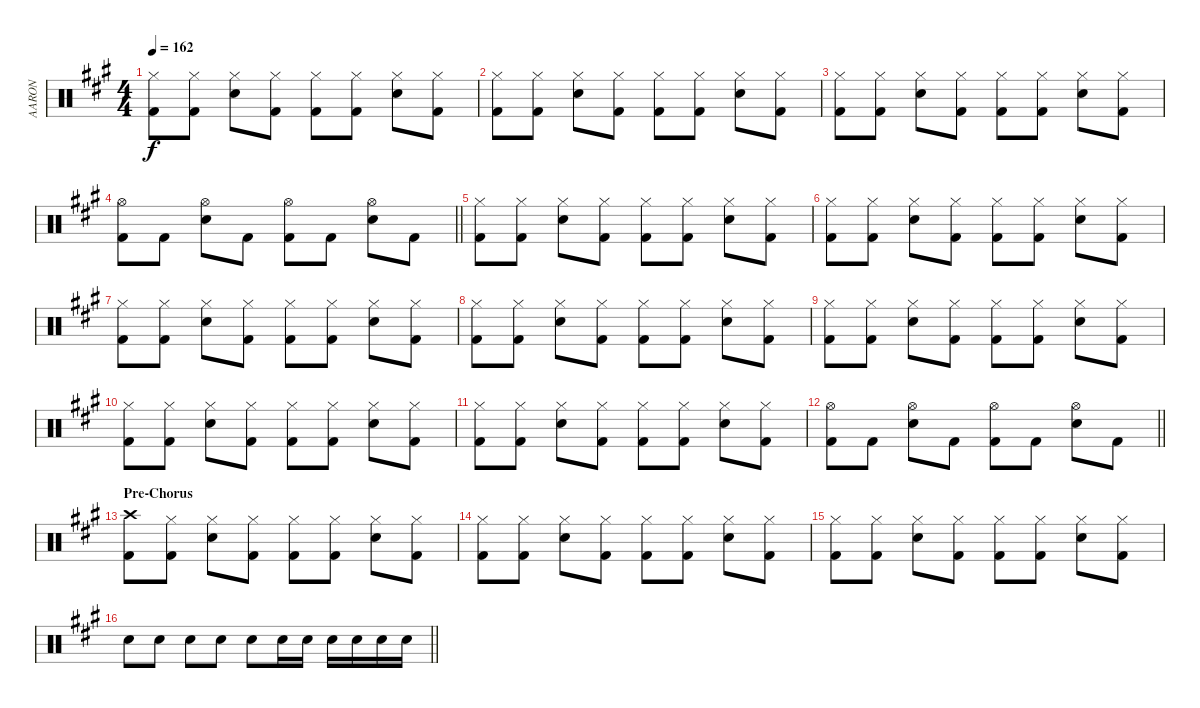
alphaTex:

\track ("AARON" "AARON") {instrument percussion}
\staff {score}
\articulation defaults
\ts (4 4)
\tempo 162
\clef neutral
\ks a
("Hi-Hat (closed)" "Kick (hit) 2").8{dy f} ("Hi-Hat (closed)" "Kick (hit) 2").8 ("Hi-Hat (closed)" "Electric Snare (hit)").8 ("Hi-Hat (closed)" "Kick (hit) 2").8 ("Hi-Hat (closed)" "Kick (hit) 2").8 ("Hi-Hat (closed)" "Kick (hit) 2").8 ("Hi-Hat (closed)" "Electric Snare (hit)").8 ("Hi-Hat (closed)" "Kick (hit) 2").8 |
("Hi-Hat (closed)" "Kick (hit) 2").8 ("Hi-Hat (closed)" "Kick (hit) 2").8 ("Hi-Hat (closed)" "Electric Snare (hit)").8 ("Hi-Hat (closed)" "Kick (hit) 2").8 ("Hi-Hat (closed)" "Kick (hit) 2").8 ("Hi-Hat (closed)" "Kick (hit) 2").8 ("Hi-Hat (closed)" "Electric Snare (hit)").8 ("Hi-Hat (closed)" "Kick (hit) 2").8 |
("Hi-Hat (closed)" "Kick (hit) 2").8 ("Hi-Hat (closed)" "Kick (hit) 2").8 ("Hi-Hat (closed)" "Electric Snare (hit)").8 ("Hi-Hat (closed)" "Kick (hit) 2").8 ("Hi-Hat (closed)" "Kick (hit) 2").8 ("Hi-Hat (closed)" "Kick (hit) 2").8 ("Hi-Hat (closed)" "Electric Snare (hit)").8 ("Hi-Hat (closed)" "Kick (hit) 2").8 |
\barLineRight lightlight
("Hi-Hat (open)" "Kick (hit) 2").8 "Kick (hit) 2".8 ("Hi-Hat (open)" "Electric Snare (hit)").8 "Kick (hit) 2".8 ("Hi-Hat (open)" "Kick (hit) 2").8 "Kick (hit) 2".8 ("Hi-Hat (open)" "Electric Snare (hit)").8 "Kick (hit) 2".8 |
("Hi-Hat (closed)" "Kick (hit) 2").8 ("Hi-Hat (closed)" "Kick (hit) 2").8 ("Hi-Hat (closed)" "Electric Snare (hit)").8 ("Hi-Hat (closed)" "Kick (hit) 2").8 ("Hi-Hat (closed)" "Kick (hit) 2").8 ("Hi-Hat (closed)" "Kick (hit) 2").8 ("Hi-Hat (closed)" "Electric Snare (hit)").8 ("Hi-Hat (closed)" "Kick (hit) 2").8 |
("Hi-Hat (closed)" "Kick (hit) 2").8 ("Hi-Hat (closed)" "Kick (hit) 2").8 ("Hi-Hat (closed)" "Electric Snare (hit)").8 ("Hi-Hat (closed)" "Kick (hit) 2").8 ("Hi-Hat (closed)" "Kick (hit) 2").8 ("Hi-Hat (closed)" "Kick (hit) 2").8 ("Hi-Hat (closed)" "Electric Snare (hit)").8 ("Hi-Hat (closed)" "Kick (hit) 2").8 |
("Hi-Hat (closed)" "Kick (hit) 2").8 ("Hi-Hat (closed)" "Kick (hit) 2").8 ("Hi-Hat (closed)" "Electric Snare (hit)").8 ("Hi-Hat (closed)" "Kick (hit) 2").8 ("Hi-Hat (closed)" "Kick (hit) 2").8 ("Hi-Hat (closed)" "Kick (hit) 2").8 ("Hi-Hat (closed)" "Electric Snare (hit)").8 ("Hi-Hat (closed)" "Kick (hit) 2").8 |
("Hi-Hat (closed)" "Kick (hit) 2").8 ("Hi-Hat (closed)" "Kick (hit) 2").8 ("Hi-Hat (closed)" "Electric Snare (hit)").8 ("Hi-Hat (closed)" "Kick (hit) 2").8 ("Hi-Hat (closed)" "Kick (hit) 2").8 ("Hi-Hat (closed)" "Kick (hit) 2").8 ("Hi-Hat (closed)" "Electric Snare (hit)").8 ("Hi-Hat (closed)" "Kick (hit) 2").8 |
("Hi-Hat (closed)" "Kick (hit) 2").8 ("Hi-Hat (closed)" "Kick (hit) 2").8 ("Hi-Hat (closed)" "Electric Snare (hit)").8 ("Hi-Hat (closed)" "Kick (hit) 2").8 ("Hi-Hat (closed)" "Kick (hit) 2").8 ("Hi-Hat (closed)" "Kick (hit) 2").8 ("Hi-Hat (closed)" "Electric Snare (hit)").8 ("Hi-Hat (closed)" "Kick (hit) 2").8 |
("Hi-Hat (closed)" "Kick (hit) 2").8 ("Hi-Hat (closed)" "Kick (hit) 2").8 ("Hi-Hat (closed)" "Electric Snare (hit)").8 ("Hi-Hat (closed)" "Kick (hit) 2").8 ("Hi-Hat (closed)" "Kick (hit) 2").8 ("Hi-Hat (closed)" "Kick (hit) 2").8 ("Hi-Hat (closed)" "Electric Snare (hit)").8 ("Hi-Hat (closed)" "Kick (hit) 2").8 |
("Hi-Hat (closed)" "Kick (hit) 2").8 ("Hi-Hat (closed)" "Kick (hit) 2").8 ("Hi-Hat (closed)" "Electric Snare (hit)").8 ("Hi-Hat (closed)" "Kick (hit) 2").8 ("Hi-Hat (closed)" "Kick (hit) 2").8 ("Hi-Hat (closed)" "Kick (hit) 2").8 ("Hi-Hat (closed)" "Electric Snare (hit)").8 ("Hi-Hat (closed)" "Kick (hit) 2").8 |
\barLineRight lightlight
("Hi-Hat (open)" "Kick (hit) 2").8 "Kick (hit) 2".8 ("Hi-Hat (open)" "Electric Snare (hit)").8 "Kick (hit) 2".8 ("Hi-Hat (open)" "Kick (hit) 2").8 "Kick (hit) 2".8 ("Hi-Hat (open)" "Electric Snare (hit)").8 "Kick (hit) 2".8 |
\section ("" "Pre-Chorus")
("Crash high (hit)" "Kick (hit) 2").8 ("Hi-Hat (closed)" "Kick (hit) 2").8 ("Hi-Hat (closed)" "Electric Snare (hit)").8 ("Hi-Hat (closed)" "Kick (hit) 2").8 ("Hi-Hat (closed)" "Kick (hit) 2").8 ("Hi-Hat (closed)" "Kick (hit) 2").8 ("Hi-Hat (closed)" "Electric Snare (hit)").8 ("Hi-Hat (closed)" "Kick (hit) 2").8 |
("Hi-Hat (closed)" "Kick (hit) 2").8 ("Hi-Hat (closed)" "Kick (hit) 2").8 ("Hi-Hat (closed)" "Electric Snare (hit)").8 ("Hi-Hat (closed)" "Kick (hit) 2").8 ("Hi-Hat (closed)" "Kick (hit) 2").8 ("Hi-Hat (closed)" "Kick (hit) 2").8 ("Hi-Hat (closed)" "Electric Snare (hit)").8 ("Hi-Hat (closed)" "Kick (hit) 2").8 |
("Hi-Hat (closed)" "Kick (hit) 2").8 ("Hi-Hat (closed)" "Kick (hit) 2").8 ("Hi-Hat (closed)" "Electric Snare (hit)").8 ("Hi-Hat (closed)" "Kick (hit) 2").8 ("Hi-Hat (closed)" "Kick (hit) 2").8 ("Hi-Hat (closed)" "Kick (hit) 2").8 ("Hi-Hat (closed)" "Electric Snare (hit)").8 ("Hi-Hat (closed)" "Kick (hit) 2").8 |
\barLineRight lightlight "Electric Snare (hit)".8 "Electric Snare (hit)".8 "Electric Snare (hit)".8 "Electric Snare (hit)".8 "Electric Snare (hit)".8 "Electric Snare (hit)".16 "Electric Snare (hit)".16 "Electric Snare (hit)".16 "Electric Snare (hit)".16 "Electric Snare (hit)".16 "Electric Snare (hit)".16
